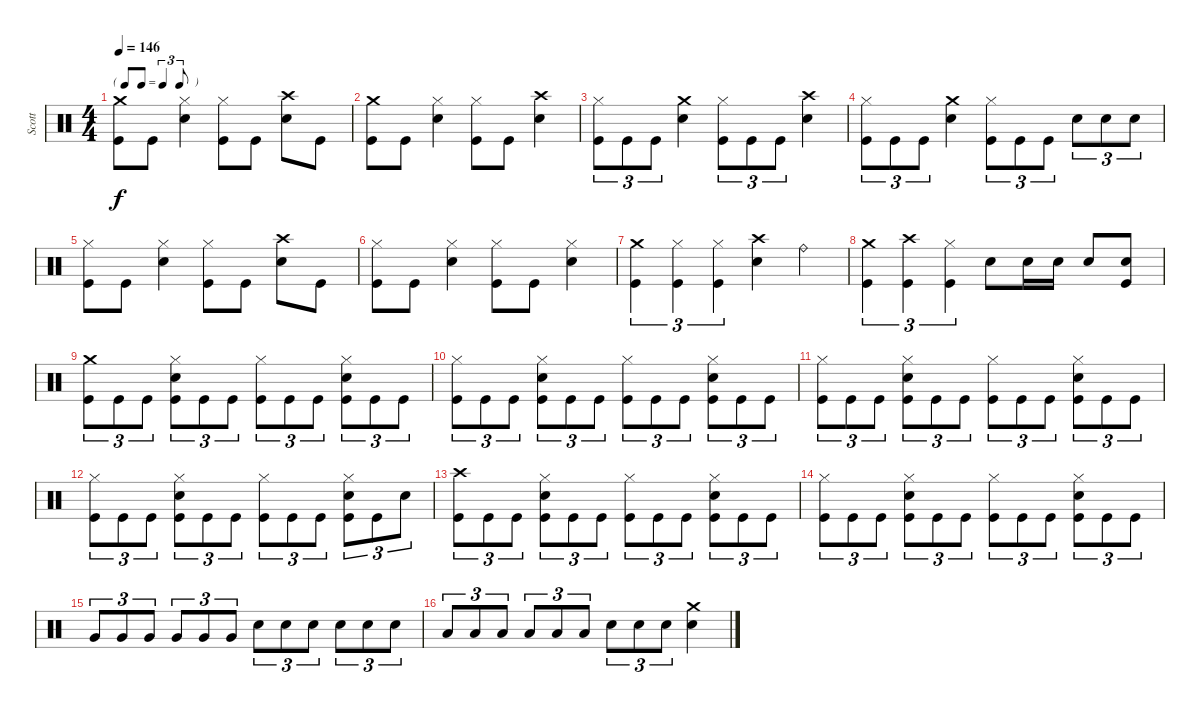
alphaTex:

\track ("Scott" "Scott") {instrument percussion}
\staff {score}
\articulation defaults
\ts (4 4)
\tf triplet8th
\tempo 146
\clef neutral
\ks c
("Kick (hit)" "Crash medium (hit)").8{dy f} "Kick (hit)".8 ("Snare (hit) 2" "Hi-Hat (closed)").4 ("Kick (hit)" "Hi-Hat (closed)").8 "Kick (hit)".8 ("Snare (hit) 2" "Crash high (hit)").8 "Kick (hit)".8 |
("Kick (hit)" "Crash medium (hit)").8 "Kick (hit)".8 ("Snare (hit) 2" "Hi-Hat (closed)").4 ("Kick (hit)" "Hi-Hat (closed)").8 "Kick (hit)".8 ("Snare (hit) 2" "Crash high (hit)").4 |
("Kick (hit)" "Hi-Hat (closed)").8{tu (3 2)} "Kick (hit)".8{tu (3 2)} "Kick (hit)".8{tu (3 2)} ("Snare (hit) 2" "Crash medium (hit)").4 ("Kick (hit)" "Hi-Hat (closed)").8{tu (3 2)} "Kick (hit)".8{tu (3 2)} "Kick (hit)".8{tu (3 2)} ("Snare (hit) 2" "Crash high (hit)").4 |
("Kick (hit)" "Hi-Hat (closed)").8{tu (3 2)} "Kick (hit)".8{tu (3 2)} "Kick (hit)".8{tu (3 2)} ("Snare (hit) 2" "Crash medium (hit)").4 ("Kick (hit)" "Hi-Hat (closed)").8{tu (3 2)} "Kick (hit)".8{tu (3 2)} "Kick (hit)".8{tu (3 2)} "Snare (hit) 2".8{tu (3 2)} "Snare (hit) 2".8{tu (3 2)} "Snare (hit) 2".8{tu (3 2)} |
("Kick (hit)" "Hi-Hat (closed)").8 "Kick (hit)".8 ("Snare (hit) 2" "Hi-Hat (closed)").4 ("Kick (hit)" "Hi-Hat (closed)").8 "Kick (hit)".8 ("Snare (hit) 2" "Crash high (hit)").8 "Kick (hit)".8 |
("Kick (hit)" "Hi-Hat (closed)").8 "Kick (hit)".8 ("Snare (hit) 2" "Hi-Hat (closed)").4 ("Kick (hit)" "Hi-Hat (closed)").8 "Kick (hit)".8 ("Snare (hit) 2" "Hi-Hat (closed)").4 |
("Kick (hit)" "Crash medium (hit)").4{tu (3 2)} ("Kick (hit)" "Hi-Hat (closed)").4{tu (3 2)} ("Kick (hit)" "Hi-Hat (closed)").4{tu (3 2)} ("Snare (hit) 2" "Crash high (hit)").4 "Ride (bell)".4 |
("Kick (hit)" "Crash medium (hit)").4{tu (3 2)} ("Kick (hit)" "Crash high (hit)").4{tu (3 2)} ("Kick (hit)" "Hi-Hat (closed)").4{tu (3 2)} "Snare (hit) 2".8 "Snare (hit) 2".16 "Snare (hit) 2".16 "Snare (hit) 2".8 ("Kick (hit)" "Snare (hit) 2").8 |
("Kick (hit)" "Crash medium (hit)").8{tu (3 2)} "Kick (hit)".8{tu (3 2)} "Kick (hit)".8{tu (3 2)} ("Kick (hit)" "Snare (hit) 2" "Hi-Hat (closed)").8{tu (3 2)} "Kick (hit)".8{tu (3 2)} "Kick (hit)".8{tu (3 2)} ("Kick (hit)" "Hi-Hat (closed)").8{tu (3 2)} "Kick (hit)".8{tu (3 2)} "Kick (hit)".8{tu (3 2)} ("Kick (hit)" "Snare (hit) 2" "Hi-Hat (closed)").8{tu (3 2)} "Kick (hit)".8{tu (3 2)} "Kick (hit)".8{tu (3 2)} |
("Kick (hit)" "Hi-Hat (closed)").8{tu (3 2)} "Kick (hit)".8{tu (3 2)} "Kick (hit)".8{tu (3 2)} ("Kick (hit)" "Snare (hit) 2" "Hi-Hat (closed)").8{tu (3 2)} "Kick (hit)".8{tu (3 2)} "Kick (hit)".8{tu (3 2)} ("Kick (hit)" "Hi-Hat (closed)").8{tu (3 2)} "Kick (hit)".8{tu (3 2)} "Kick (hit)".8{tu (3 2)} ("Kick (hit)" "Snare (hit) 2" "Hi-Hat (closed)").8{tu (3 2)} "Kick (hit)".8{tu (3 2)} "Kick (hit)".8{tu (3 2)} |
("Kick (hit)" "Hi-Hat (closed)").8{tu (3 2)} "Kick (hit)".8{tu (3 2)} "Kick (hit)".8{tu (3 2)} ("Kick (hit)" "Snare (hit) 2" "Hi-Hat (closed)").8{tu (3 2)} "Kick (hit)".8{tu (3 2)} "Kick (hit)".8{tu (3 2)} ("Kick (hit)" "Hi-Hat (closed)").8{tu (3 2)} "Kick (hit)".8{tu (3 2)} "Kick (hit)".8{tu (3 2)} ("Kick (hit)" "Snare (hit) 2" "Hi-Hat (closed)").8{tu (3 2)} "Kick (hit)".8{tu (3 2)} "Kick (hit)".8{tu (3 2)} |
("Kick (hit)" "Hi-Hat (closed)").8{tu (3 2)} "Kick (hit)".8{tu (3 2)} "Kick (hit)".8{tu (3 2)} ("Kick (hit)" "Snare (hit) 2" "Hi-Hat (closed)").8{tu (3 2)} "Kick (hit)".8{tu (3 2)} "Kick (hit)".8{tu (3 2)} ("Kick (hit)" "Hi-Hat (closed)").8{tu (3 2)} "Kick (hit)".8{tu (3 2)} "Kick (hit)".8{tu (3 2)} ("Kick (hit)" "Snare (hit) 2" "Hi-Hat (closed)").8{tu (3 2)} "Kick (hit)".8{tu (3 2)} "Snare (hit) 2".8{tu (3 2)} |
("Kick (hit)" "Crash high (hit)").8{tu (3 2)} "Kick (hit)".8{tu (3 2)} "Kick (hit)".8{tu (3 2)} ("Kick (hit)" "Snare (hit) 2" "Hi-Hat (closed)").8{tu (3 2)} "Kick (hit)".8{tu (3 2)} "Kick (hit)".8{tu (3 2)} ("Kick (hit)" "Hi-Hat (closed)").8{tu (3 2)} "Kick (hit)".8{tu (3 2)} "Kick (hit)".8{tu (3 2)} ("Kick (hit)" "Snare (hit) 2" "Hi-Hat (closed)").8{tu (3 2)} "Kick (hit)".8{tu (3 2)} "Kick (hit)".8{tu (3 2)} |
("Kick (hit)" "Hi-Hat (closed)").8{tu (3 2)} "Kick (hit)".8{tu (3 2)} "Kick (hit)".8{tu (3 2)} ("Kick (hit)" "Snare (hit) 2" "Hi-Hat (closed)").8{tu (3 2)} "Kick (hit)".8{tu (3 2)} "Kick (hit)".8{tu (3 2)} ("Kick (hit)" "Hi-Hat (closed)").8{tu (3 2)} "Kick (hit)".8{tu (3 2)} "Kick (hit)".8{tu (3 2)} ("Kick (hit)" "Snare (hit) 2" "Hi-Hat (closed)").8{tu (3 2)} "Kick (hit)".8{tu (3 2)} "Kick (hit)".8{tu (3 2)} |
"Very Low Tom (hit)".8{tu (3 2)} "Very Low Tom (hit)".8{tu (3 2)} "Very Low Tom (hit)".8{tu (3 2)} "Very Low Tom (hit)".8{tu (3 2)} "Very Low Tom (hit)".8{tu (3 2)} "Very Low Tom (hit)".8{tu (3 2)} "Snare (hit) 2".8{tu (3 2)} "Snare (hit) 2".8{tu (3 2)} "Snare (hit) 2".8{tu (3 2)} "Snare (hit) 2".8{tu (3 2)} "Snare (hit) 2".8{tu (3 2)} "Snare (hit) 2".8{tu (3 2)} |
"Low Tom (hit)".8{tu (3 2)} "Low Tom (hit)".8{tu (3 2)} "Low Tom (hit)".8{tu (3 2)} "Low Tom (hit)".8{tu (3 2)} "Low Tom (hit)".8{tu (3 2)} "Low Tom (hit)".8{tu (3 2)} "Snare (hit) 2".8{tu (3 2)} "Snare (hit) 2".8{tu (3 2)} "Snare (hit) 2".8{tu (3 2)} ("Snare (hit) 2" "Crash medium (hit)").4
